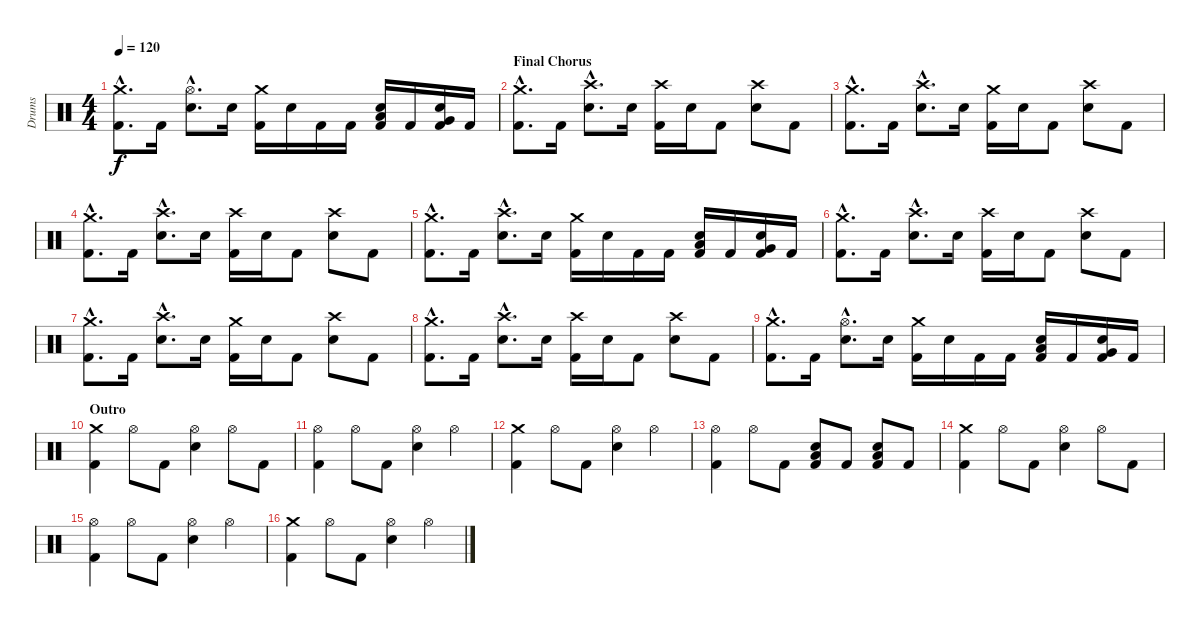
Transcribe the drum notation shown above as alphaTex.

\track ("Drums" "Drums") {instrument percussion}
\staff {score}
\articulation defaults
\ts (4 4)
\tempo 120
\clef neutral
\ks c
("Crash medium (hit)"{hac} "Kick (hit) 2"{hac}).8{d dy f} "Kick (hit) 2".16 ("Hi-Hat (open)"{hac} "Electric Snare (hit)"{hac}).8{d} "Electric Snare (hit)".16 ("Crash medium (hit)" "Kick (hit) 2").16 "Electric Snare (hit)".16 "Kick (hit) 2".16 "Kick (hit) 2".16 ("Electric Snare (hit)" "Low Tom (hit)" "Kick (hit) 2").16 "Kick (hit) 2".16 ("Electric Snare (hit)" "Very Low Tom (hit)" "Kick (hit) 2").16 "Kick (hit) 2".16 |
\section ("" "Final Chorus")
("Crash medium (hit)"{hac} "Kick (hit) 2"{hac}).8{d} "Kick (hit) 2".16 ("Crash high (hit)"{hac} "Electric Snare (hit)"{hac}).8{d} "Electric Snare (hit)".16 ("Crash high (hit)" "Kick (hit) 2").16 "Electric Snare (hit)".16 "Kick (hit) 2".8 ("Crash high (hit)" "Electric Snare (hit)").8 "Kick (hit) 2".8 |
("Crash medium (hit)"{hac} "Kick (hit) 2"{hac}).8{d} "Kick (hit) 2".16 ("Crash high (hit)"{hac} "Electric Snare (hit)"{hac}).8{d} "Electric Snare (hit)".16 ("Crash medium (hit)" "Kick (hit) 2").16 "Electric Snare (hit)".16 "Kick (hit) 2".8 ("Crash high (hit)" "Electric Snare (hit)").8 "Kick (hit) 2".8 |
("Crash medium (hit)"{hac} "Kick (hit) 2"{hac}).8{d} "Kick (hit) 2".16 ("Crash high (hit)"{hac} "Electric Snare (hit)"{hac}).8{d} "Electric Snare (hit)".16 ("Crash high (hit)" "Kick (hit) 2").16 "Electric Snare (hit)".16 "Kick (hit) 2".8 ("Crash high (hit)" "Electric Snare (hit)").8 "Kick (hit) 2".8 |
("Crash medium (hit)"{hac} "Kick (hit) 2"{hac}).8{d} "Kick (hit) 2".16 ("Crash high (hit)"{hac} "Electric Snare (hit)"{hac}).8{d} "Electric Snare (hit)".16 ("Crash medium (hit)" "Kick (hit) 2").16 "Electric Snare (hit)".16 "Kick (hit) 2".16 "Kick (hit) 2".16 ("Electric Snare (hit)" "Low Tom (hit)" "Kick (hit) 2").16 "Kick (hit) 2".16 ("Electric Snare (hit)" "Very Low Tom (hit)" "Kick (hit) 2").16 "Kick (hit) 2".16 |
("Crash medium (hit)"{hac} "Kick (hit) 2"{hac}).8{d} "Kick (hit) 2".16 ("Crash high (hit)"{hac} "Electric Snare (hit)"{hac}).8{d} "Electric Snare (hit)".16 ("Crash high (hit)" "Kick (hit) 2").16 "Electric Snare (hit)".16 "Kick (hit) 2".8 ("Crash high (hit)" "Electric Snare (hit)").8 "Kick (hit) 2".8 |
("Crash medium (hit)"{hac} "Kick (hit) 2"{hac}).8{d} "Kick (hit) 2".16 ("Crash high (hit)"{hac} "Electric Snare (hit)"{hac}).8{d} "Electric Snare (hit)".16 ("Crash medium (hit)" "Kick (hit) 2").16 "Electric Snare (hit)".16 "Kick (hit) 2".8 ("Crash high (hit)" "Electric Snare (hit)").8 "Kick (hit) 2".8 |
("Crash medium (hit)"{hac} "Kick (hit) 2"{hac}).8{d} "Kick (hit) 2".16 ("Crash high (hit)"{hac} "Electric Snare (hit)"{hac}).8{d} "Electric Snare (hit)".16 ("Crash high (hit)" "Kick (hit) 2").16 "Electric Snare (hit)".16 "Kick (hit) 2".8 ("Crash high (hit)" "Electric Snare (hit)").8 "Kick (hit) 2".8 |
("Crash medium (hit)"{hac} "Kick (hit) 2"{hac}).8{d} "Kick (hit) 2".16 ("Hi-Hat (open)"{hac} "Electric Snare (hit)"{hac}).8{d} "Electric Snare (hit)".16 ("Crash medium (hit)" "Kick (hit) 2").16 "Electric Snare (hit)".16 "Kick (hit) 2".16 "Kick (hit) 2".16 ("Electric Snare (hit)" "Low Tom (hit)" "Kick (hit) 2").16 "Kick (hit) 2".16 ("Electric Snare (hit)" "Very Low Tom (hit)" "Kick (hit) 2").16 "Kick (hit) 2".16 |
\section ("" "Outro")
("Crash medium (hit)" "Kick (hit) 2").4 "Hi-Hat (open)".8 "Kick (hit) 2".8 ("Hi-Hat (open)" "Electric Snare (hit)").4 "Hi-Hat (open)".8 "Kick (hit) 2".8 |
("Hi-Hat (open)" "Kick (hit) 2").4 "Hi-Hat (open)".8 "Kick (hit) 2".8 ("Hi-Hat (open)" "Electric Snare (hit)").4 "Hi-Hat (open)".4 |
("Crash medium (hit)" "Kick (hit) 2").4 "Hi-Hat (open)".8 "Kick (hit) 2".8 ("Hi-Hat (open)" "Electric Snare (hit)").4 "Hi-Hat (open)".4 |
("Hi-Hat (open)" "Kick (hit) 2").4 "Hi-Hat (open)".8 "Kick (hit) 2".8 ("Electric Snare (hit)" "Low Tom (hit)" "Kick (hit) 2").8 "Kick (hit) 2".8 ("Electric Snare (hit)" "Low Floor Tom (hit)" "Kick (hit) 2").8 "Kick (hit) 2".8 |
("Crash medium (hit)" "Kick (hit) 2").4 "Hi-Hat (open)".8 "Kick (hit) 2".8 ("Hi-Hat (open)" "Electric Snare (hit)").4 "Hi-Hat (open)".8 "Kick (hit) 2".8 |
("Hi-Hat (open)" "Kick (hit) 2").4 "Hi-Hat (open)".8 "Kick (hit) 2".8 ("Hi-Hat (open)" "Electric Snare (hit)").4 "Hi-Hat (open)".4 |
("Crash medium (hit)" "Kick (hit) 2").4 "Hi-Hat (open)".8 "Kick (hit) 2".8 ("Hi-Hat (open)" "Electric Snare (hit)").4 "Hi-Hat (open)".4
